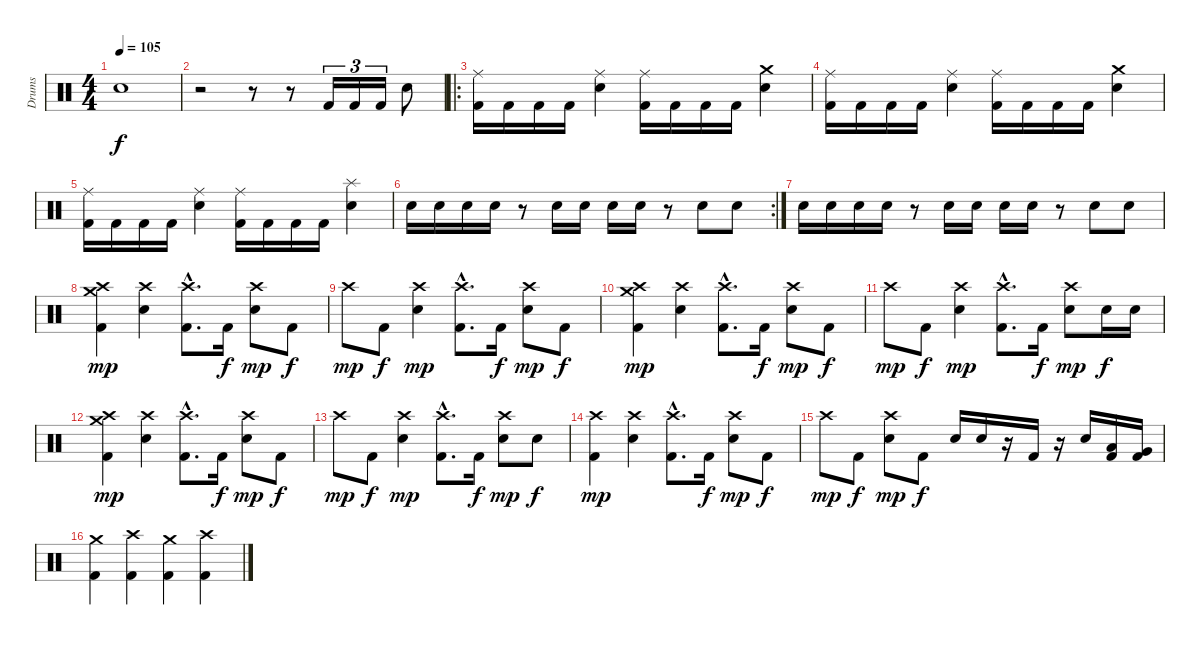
\track ("Drums" "Drums") {instrument percussion}
\staff {score}
\articulation defaults
\ts (4 4)
\tempo 105
\clef neutral
\ks c "Snare (hit)"{t}.1{dy f}
|
r.2 r.8 r.8 "Kick (hit) 2".16{tu (3 2)} "Kick (hit) 2".16{tu (3 2)} "Kick (hit) 2".16{tu (3 2)} "Electric Snare (hit)".8 |
\ro
("Kick (hit) 2" "Ride (middle)").16 "Kick (hit) 2".16 "Kick (hit) 2".16 "Kick (hit) 2".16 ("Electric Snare (hit)" "Ride (middle)").4 ("Kick (hit) 2" "Ride (middle)").16 "Kick (hit) 2".16 "Kick (hit) 2".16 "Kick (hit) 2".16 ("Electric Snare (hit)" "Crash medium (hit)").4 |
("Kick (hit) 2" "Ride (middle)").16 "Kick (hit) 2".16 "Kick (hit) 2".16 "Kick (hit) 2".16 ("Electric Snare (hit)" "Ride (middle)").4 ("Kick (hit) 2" "Ride (middle)").16 "Kick (hit) 2".16 "Kick (hit) 2".16 "Kick (hit) 2".16 ("Electric Snare (hit)" "Crash medium (hit)").4 |
("Kick (hit) 2" "Ride (middle)").16 "Kick (hit) 2".16 "Kick (hit) 2".16 "Kick (hit) 2".16 ("Electric Snare (hit)" "Ride (middle)").4 ("Kick (hit) 2" "Ride (middle)").16 "Kick (hit) 2".16 "Kick (hit) 2".16 "Kick (hit) 2".16 ("Electric Snare (hit)" "Splash (hit)").4 |
\rc 2 "Electric Snare (hit)".16 "Electric Snare (hit)".16 "Electric Snare (hit)".16 "Electric Snare (hit)".16
r.8 "Electric Snare (hit)".16 "Electric Snare (hit)".16 "Electric Snare (hit)".16 "Electric Snare (hit)".16 r.8 "Electric Snare (hit)".8 "Electric Snare (hit)".8 |
"Electric Snare (hit)".16 "Electric Snare (hit)".16 "Electric Snare (hit)".16 "Electric Snare (hit)".16 r.8 "Electric Snare (hit)".16 "Electric Snare (hit)".16 "Electric Snare (hit)".16 "Electric Snare (hit)".16 r.8 "Electric Snare (hit)".8 "Electric Snare (hit)".8 |
("Kick (hit) 2" "Crash high (hit)" "Crash medium (hit)").4{dy mp} ("Electric Snare (hit)" "Crash high (hit)").4 ("Kick (hit) 2"{hac} "Crash high (hit)"{hac}).8{d} "Kick (hit) 2".16{dy f} ("Electric Snare (hit)" "Crash high (hit)").8{dy mp} "Kick (hit) 2".8{dy f} |
"Crash high (hit)".8{dy mp} "Kick (hit) 2".8{dy f} ("Electric Snare (hit)" "Crash high (hit)").4{dy mp} ("Kick (hit) 2"{hac} "Crash high (hit)"{hac}).8{d} "Kick (hit) 2".16{dy f} ("Electric Snare (hit)" "Crash high (hit)").8{dy mp} "Kick (hit) 2".8{dy f} |
("Kick (hit) 2" "Crash high (hit)" "Crash medium (hit)").4{dy mp} ("Electric Snare (hit)" "Crash high (hit)").4 ("Kick (hit) 2"{hac} "Crash high (hit)"{hac}).8{d} "Kick (hit) 2".16{dy f} ("Electric Snare (hit)" "Crash high (hit)").8{dy mp} "Kick (hit) 2".8{dy f} |
"Crash high (hit)".8{dy mp} "Kick (hit) 2".8{dy f} ("Electric Snare (hit)" "Crash high (hit)").4{dy mp} ("Kick (hit) 2"{hac} "Crash high (hit)"{hac}).8{d} "Kick (hit) 2".16{dy f} ("Electric Snare (hit)" "Crash high (hit)").8{dy mp} "Electric Snare (hit)".16{dy f} "Electric Snare (hit)".16 |
("Kick (hit) 2" "Crash high (hit)" "Crash medium (hit)").4{dy mp} ("Electric Snare (hit)" "Crash high (hit)").4 ("Kick (hit) 2"{hac} "Crash high (hit)"{hac}).8{d} "Kick (hit) 2".16{dy f} ("Electric Snare (hit)" "Crash high (hit)").8{dy mp} "Kick (hit) 2".8{dy f} |
"Crash high (hit)".8{dy mp} "Kick (hit) 2".8{dy f} ("Electric Snare (hit)" "Crash high (hit)").4{dy mp} ("Kick (hit) 2"{hac} "Crash high (hit)"{hac}).8{d} "Kick (hit) 2".16{dy f} ("Electric Snare (hit)" "Crash high (hit)").8{dy mp} "Electric Snare (hit)".8{dy f} |
("Kick (hit) 2" "Crash high (hit)").4{dy mp} ("Electric Snare (hit)" "Crash high (hit)").4 ("Kick (hit) 2"{hac} "Crash high (hit)"{hac}).8{d} "Kick (hit) 2".16{dy f} ("Electric Snare (hit)" "Crash high (hit)").8{dy mp} "Kick (hit) 2".8{dy f} |
"Crash high (hit)".8{dy mp} "Kick (hit) 2".8{dy f} ("Electric Snare (hit)" "Crash high (hit)").8{dy mp} "Kick (hit) 2".8{dy f} "Electric Snare (hit)".16 "Electric Snare (hit)".16 r.16 "Kick (hit) 2".16 r.16 "Electric Snare (hit)".16 ("Kick (hit) 2" "Low Tom (hit)").16 ("Kick (hit) 2" "Very Low Tom (hit)").16 |
("Kick (hit) 2" "Crash medium (hit)").4 ("Kick (hit) 2" "Crash high (hit)").4 ("Kick (hit) 2" "Crash medium (hit)").4 ("Kick (hit) 2" "Crash high (hit)").4
